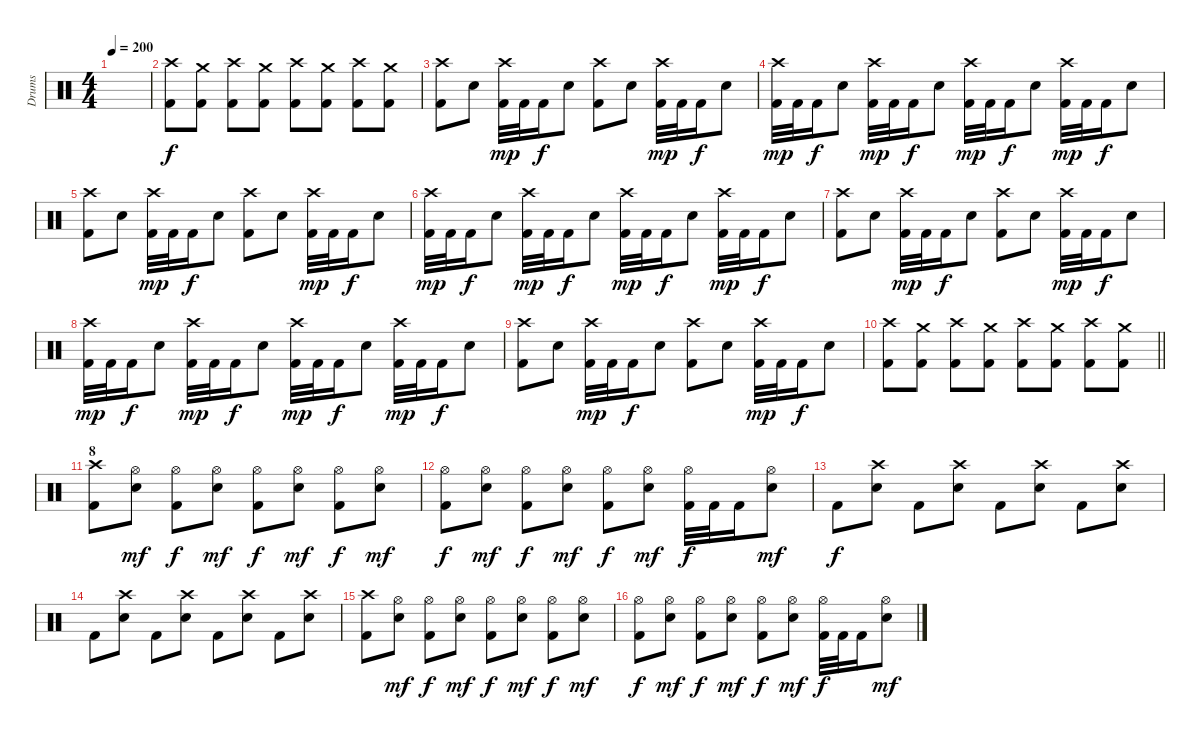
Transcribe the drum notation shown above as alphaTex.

\track ("Drums" "Drums") {instrument percussion}
\staff {score}
\articulation defaults
\ts (4 4)
\tempo 200
\clef neutral
\ks c
|
("Crash high (hit)" "Kick (hit) 2").8 ("Crash medium (hit)" "Kick (hit) 2").8 ("Crash high (hit)" "Kick (hit) 2").8 ("Crash medium (hit)" "Kick (hit) 2").8 ("Crash high (hit)" "Kick (hit) 2").8 ("Crash medium (hit)" "Kick (hit) 2").8 ("Crash high (hit)" "Kick (hit) 2").8 ("Crash medium (hit)" "Kick (hit) 2").8 |
("Crash high (hit)" "Kick (hit) 2").8 "Electric Snare (hit)".8 ("Crash high (hit)" "Kick (hit) 2").32{dy mp} "Kick (hit) 2".32 "Kick (hit) 2".16{dy f} "Electric Snare (hit)".8 ("Crash high (hit)" "Kick (hit) 2").8 "Electric Snare (hit)".8 ("Crash high (hit)" "Kick (hit) 2").32{dy mp} "Kick (hit) 2".32 "Kick (hit) 2".16{dy f} "Electric Snare (hit)".8 |
("Crash high (hit)" "Kick (hit) 2").32{dy mp} "Kick (hit) 2".32 "Kick (hit) 2".16{dy f} "Electric Snare (hit)".8 ("Crash high (hit)" "Kick (hit) 2").32{dy mp} "Kick (hit) 2".32 "Kick (hit) 2".16{dy f} "Electric Snare (hit)".8 ("Crash high (hit)" "Kick (hit) 2").32{dy mp} "Kick (hit) 2".32 "Kick (hit) 2".16{dy f} "Electric Snare (hit)".8 ("Crash high (hit)" "Kick (hit) 2").32{dy mp} "Kick (hit) 2".32 "Kick (hit) 2".16{dy f} "Electric Snare (hit)".8 |
("Crash high (hit)" "Kick (hit) 2").8 "Electric Snare (hit)".8 ("Crash high (hit)" "Kick (hit) 2").32{dy mp} "Kick (hit) 2".32 "Kick (hit) 2".16{dy f} "Electric Snare (hit)".8 ("Crash high (hit)" "Kick (hit) 2").8 "Electric Snare (hit)".8 ("Crash high (hit)" "Kick (hit) 2").32{dy mp} "Kick (hit) 2".32 "Kick (hit) 2".16{dy f} "Electric Snare (hit)".8 |
("Crash high (hit)" "Kick (hit) 2").32{dy mp} "Kick (hit) 2".32 "Kick (hit) 2".16{dy f} "Electric Snare (hit)".8 ("Crash high (hit)" "Kick (hit) 2").32{dy mp} "Kick (hit) 2".32 "Kick (hit) 2".16{dy f} "Electric Snare (hit)".8 ("Crash high (hit)" "Kick (hit) 2").32{dy mp} "Kick (hit) 2".32 "Kick (hit) 2".16{dy f} "Electric Snare (hit)".8 ("Crash high (hit)" "Kick (hit) 2").32{dy mp} "Kick (hit) 2".32 "Kick (hit) 2".16{dy f} "Electric Snare (hit)".8 |
("Crash high (hit)" "Kick (hit) 2").8 "Electric Snare (hit)".8 ("Crash high (hit)" "Kick (hit) 2").32{dy mp} "Kick (hit) 2".32 "Kick (hit) 2".16{dy f} "Electric Snare (hit)".8 ("Crash high (hit)" "Kick (hit) 2").8 "Electric Snare (hit)".8 ("Crash high (hit)" "Kick (hit) 2").32{dy mp} "Kick (hit) 2".32 "Kick (hit) 2".16{dy f} "Electric Snare (hit)".8 |
("Crash high (hit)" "Kick (hit) 2").32{dy mp} "Kick (hit) 2".32 "Kick (hit) 2".16{dy f} "Electric Snare (hit)".8 ("Crash high (hit)" "Kick (hit) 2").32{dy mp} "Kick (hit) 2".32 "Kick (hit) 2".16{dy f} "Electric Snare (hit)".8 ("Crash high (hit)" "Kick (hit) 2").32{dy mp} "Kick (hit) 2".32 "Kick (hit) 2".16{dy f} "Electric Snare (hit)".8 ("Crash high (hit)" "Kick (hit) 2").32{dy mp} "Kick (hit) 2".32 "Kick (hit) 2".16{dy f} "Electric Snare (hit)".8 |
("Crash high (hit)" "Kick (hit) 2").8 "Electric Snare (hit)".8 ("Crash high (hit)" "Kick (hit) 2").32{dy mp} "Kick (hit) 2".32 "Kick (hit) 2".16{dy f} "Electric Snare (hit)".8 ("Crash high (hit)" "Kick (hit) 2").8 "Electric Snare (hit)".8 ("Crash high (hit)" "Kick (hit) 2").32{dy mp} "Kick (hit) 2".32 "Kick (hit) 2".16{dy f} "Electric Snare (hit)".8 |
\barLineRight lightlight
("Crash high (hit)" "Kick (hit) 2").8 ("Crash medium (hit)" "Kick (hit) 2").8 ("Crash high (hit)" "Kick (hit) 2").8 ("Crash medium (hit)" "Kick (hit) 2").8 ("Crash high (hit)" "Kick (hit) 2").8 ("Crash medium (hit)" "Kick (hit) 2").8 ("Crash high (hit)" "Kick (hit) 2").8 ("Crash medium (hit)" "Kick (hit) 2").8 |
\section ("" "8")
("Crash high (hit)" "Kick (hit) 2").8 ("Hi-Hat (open)" "Electric Snare (hit)").8{dy mf} ("Hi-Hat (open)" "Kick (hit) 2").8{dy f} ("Hi-Hat (open)" "Electric Snare (hit)").8{dy mf} ("Hi-Hat (open)" "Kick (hit) 2").8{dy f} ("Hi-Hat (open)" "Electric Snare (hit)").8{dy mf} ("Hi-Hat (open)" "Kick (hit) 2").8{dy f} ("Hi-Hat (open)" "Electric Snare (hit)").8{dy mf} |
("Hi-Hat (open)" "Kick (hit) 2").8{dy f} ("Hi-Hat (open)" "Electric Snare (hit)").8{dy mf} ("Hi-Hat (open)" "Kick (hit) 2").8{dy f} ("Hi-Hat (open)" "Electric Snare (hit)").8{dy mf} ("Hi-Hat (open)" "Kick (hit) 2").8{dy f} ("Hi-Hat (open)" "Electric Snare (hit)").8{dy mf} ("Hi-Hat (open)" "Kick (hit) 2").32{dy f} "Kick (hit) 2".32 "Kick (hit) 2".16 ("Hi-Hat (open)" "Electric Snare (hit)").8{dy mf} |
"Kick (hit) 2".8{dy f} ("Crash high (hit)" "Electric Snare (hit)").8 "Kick (hit) 2".8 ("Crash high (hit)" "Electric Snare (hit)").8 "Kick (hit) 2".8 ("Crash high (hit)" "Electric Snare (hit)").8 "Kick (hit) 2".8 ("Crash high (hit)" "Electric Snare (hit)").8 |
"Kick (hit) 2".8 ("Crash high (hit)" "Electric Snare (hit)").8 "Kick (hit) 2".8 ("Crash high (hit)" "Electric Snare (hit)").8 "Kick (hit) 2".8 ("Crash high (hit)" "Electric Snare (hit)").8 "Kick (hit) 2".8 ("Crash high (hit)" "Electric Snare (hit)").8 |
("Crash high (hit)" "Kick (hit) 2").8 ("Hi-Hat (open)" "Electric Snare (hit)").8{dy mf} ("Hi-Hat (open)" "Kick (hit) 2").8{dy f} ("Hi-Hat (open)" "Electric Snare (hit)").8{dy mf} ("Hi-Hat (open)" "Kick (hit) 2").8{dy f} ("Hi-Hat (open)" "Electric Snare (hit)").8{dy mf} ("Hi-Hat (open)" "Kick (hit) 2").8{dy f} ("Hi-Hat (open)" "Electric Snare (hit)").8{dy mf} |
("Hi-Hat (open)" "Kick (hit) 2").8{dy f} ("Hi-Hat (open)" "Electric Snare (hit)").8{dy mf} ("Hi-Hat (open)" "Kick (hit) 2").8{dy f} ("Hi-Hat (open)" "Electric Snare (hit)").8{dy mf} ("Hi-Hat (open)" "Kick (hit) 2").8{dy f} ("Hi-Hat (open)" "Electric Snare (hit)").8{dy mf} ("Hi-Hat (open)" "Kick (hit) 2").32{dy f} "Kick (hit) 2".32 "Kick (hit) 2".16 ("Hi-Hat (open)" "Electric Snare (hit)").8{dy mf}
